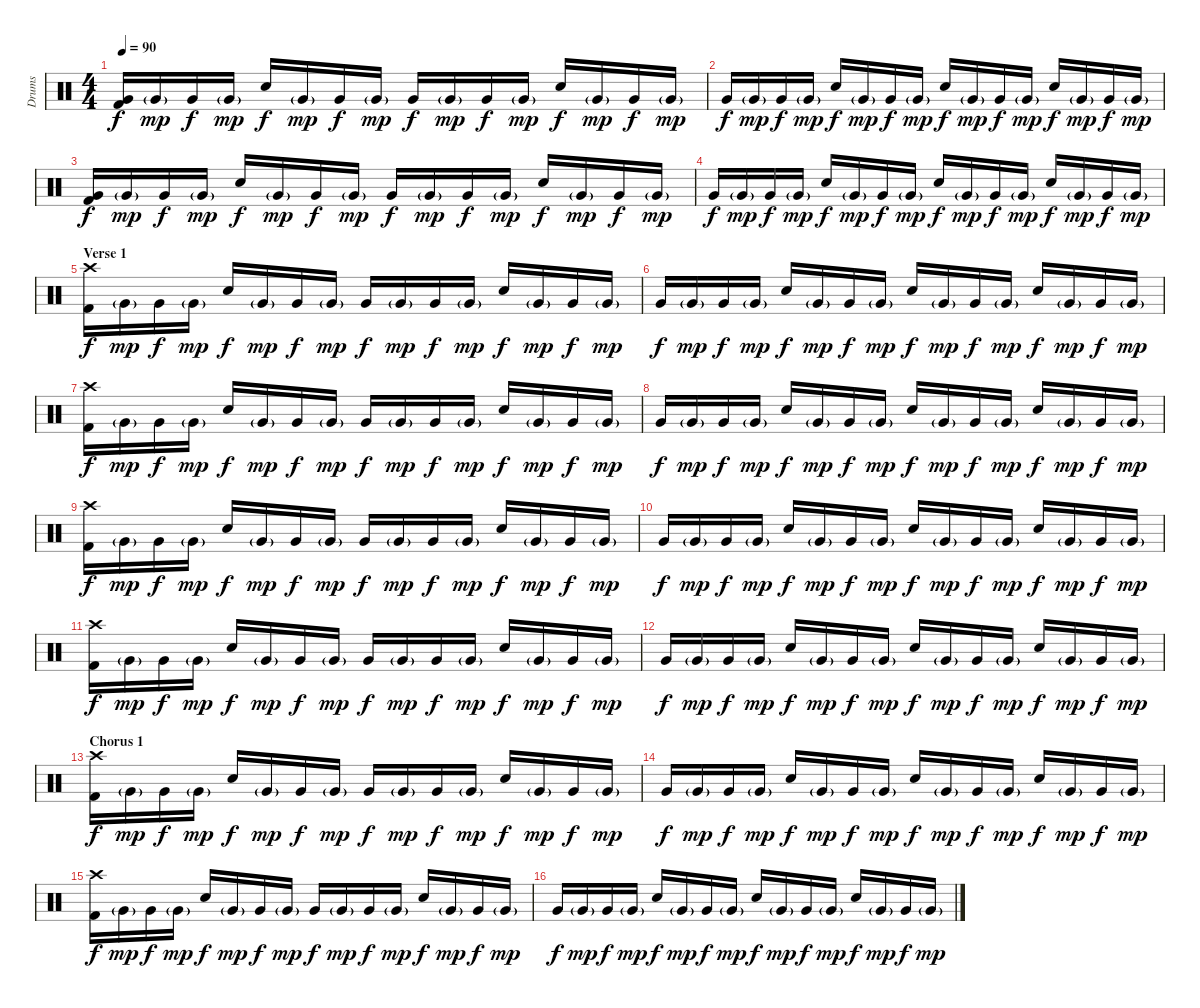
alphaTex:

\track ("Drums" "Drums") {instrument percussion}
\staff {score}
\articulation defaults
\ts (4 4)
\tempo 90
\clef neutral
\ks c
("Very Low Tom (hit)" "Kick (hit) 2").16{dy f} "Very Low Tom (hit)"{g}.16{dy mp} "Very Low Tom (hit)".16{dy f} "Very Low Tom (hit)"{g}.16{dy mp} "Snare (hit) 2".16{dy f} "Very Low Tom (hit)"{g}.16{dy mp} "Very Low Tom (hit)".16{dy f} "Very Low Tom (hit)"{g}.16{dy mp} "Very Low Tom (hit)".16{dy f} "Very Low Tom (hit)"{g}.16{dy mp} "Very Low Tom (hit)".16{dy f} "Very Low Tom (hit)"{g}.16{dy mp} "Snare (hit) 2".16{dy f} "Very Low Tom (hit)"{g}.16{dy mp} "Very Low Tom (hit)".16{dy f} "Very Low Tom (hit)"{g}.16{dy mp} |
"Very Low Tom (hit)".16{dy f} "Very Low Tom (hit)"{g}.16{dy mp} "Very Low Tom (hit)".16{dy f} "Very Low Tom (hit)"{g}.16{dy mp} "Snare (hit) 2".16{dy f} "Very Low Tom (hit)"{g}.16{dy mp} "Very Low Tom (hit)".16{dy f} "Very Low Tom (hit)"{g}.16{dy mp} "Snare (hit) 2".16{dy f} "Very Low Tom (hit)"{g}.16{dy mp} "Very Low Tom (hit)".16{dy f} "Very Low Tom (hit)"{g}.16{dy mp} "Snare (hit) 2".16{dy f} "Very Low Tom (hit)"{g}.16{dy mp} "Very Low Tom (hit)".16{dy f} "Very Low Tom (hit)"{g}.16{dy mp} |
("Very Low Tom (hit)" "Kick (hit) 2").16{dy f} "Very Low Tom (hit)"{g}.16{dy mp} "Very Low Tom (hit)".16{dy f} "Very Low Tom (hit)"{g}.16{dy mp} "Snare (hit) 2".16{dy f} "Very Low Tom (hit)"{g}.16{dy mp} "Very Low Tom (hit)".16{dy f} "Very Low Tom (hit)"{g}.16{dy mp} "Very Low Tom (hit)".16{dy f} "Very Low Tom (hit)"{g}.16{dy mp} "Very Low Tom (hit)".16{dy f} "Very Low Tom (hit)"{g}.16{dy mp} "Snare (hit) 2".16{dy f} "Very Low Tom (hit)"{g}.16{dy mp} "Very Low Tom (hit)".16{dy f} "Very Low Tom (hit)"{g}.16{dy mp} |
"Very Low Tom (hit)".16{dy f} "Very Low Tom (hit)"{g}.16{dy mp} "Very Low Tom (hit)".16{dy f} "Very Low Tom (hit)"{g}.16{dy mp} "Snare (hit) 2".16{dy f} "Very Low Tom (hit)"{g}.16{dy mp} "Very Low Tom (hit)".16{dy f} "Very Low Tom (hit)"{g}.16{dy mp} "Snare (hit) 2".16{dy f} "Very Low Tom (hit)"{g}.16{dy mp} "Very Low Tom (hit)".16{dy f} "Very Low Tom (hit)"{g}.16{dy mp} "Snare (hit) 2".16{dy f} "Very Low Tom (hit)"{g}.16{dy mp} "Very Low Tom (hit)".16{dy f} "Very Low Tom (hit)"{g}.16{dy mp} |
\section ("" "Verse 1")
("Crash high (hit)" "Kick (hit) 2").16{dy f} "Very Low Tom (hit)"{g}.16{dy mp} "Very Low Tom (hit)".16{dy f} "Very Low Tom (hit)"{g}.16{dy mp} "Snare (hit) 2".16{dy f} "Very Low Tom (hit)"{g}.16{dy mp} "Very Low Tom (hit)".16{dy f} "Very Low Tom (hit)"{g}.16{dy mp} "Very Low Tom (hit)".16{dy f} "Very Low Tom (hit)"{g}.16{dy mp} "Very Low Tom (hit)".16{dy f} "Very Low Tom (hit)"{g}.16{dy mp} "Snare (hit) 2".16{dy f} "Very Low Tom (hit)"{g}.16{dy mp} "Very Low Tom (hit)".16{dy f} "Very Low Tom (hit)"{g}.16{dy mp} |
"Very Low Tom (hit)".16{dy f} "Very Low Tom (hit)"{g}.16{dy mp} "Very Low Tom (hit)".16{dy f} "Very Low Tom (hit)"{g}.16{dy mp} "Snare (hit) 2".16{dy f} "Very Low Tom (hit)"{g}.16{dy mp} "Very Low Tom (hit)".16{dy f} "Very Low Tom (hit)"{g}.16{dy mp} "Snare (hit) 2".16{dy f} "Very Low Tom (hit)"{g}.16{dy mp} "Very Low Tom (hit)".16{dy f} "Very Low Tom (hit)"{g}.16{dy mp} "Snare (hit) 2".16{dy f} "Very Low Tom (hit)"{g}.16{dy mp} "Very Low Tom (hit)".16{dy f} "Very Low Tom (hit)"{g}.16{dy mp} |
("Crash high (hit)" "Kick (hit) 2").16{dy f} "Very Low Tom (hit)"{g}.16{dy mp} "Very Low Tom (hit)".16{dy f} "Very Low Tom (hit)"{g}.16{dy mp} "Snare (hit) 2".16{dy f} "Very Low Tom (hit)"{g}.16{dy mp} "Very Low Tom (hit)".16{dy f} "Very Low Tom (hit)"{g}.16{dy mp} "Very Low Tom (hit)".16{dy f} "Very Low Tom (hit)"{g}.16{dy mp} "Very Low Tom (hit)".16{dy f} "Very Low Tom (hit)"{g}.16{dy mp} "Snare (hit) 2".16{dy f} "Very Low Tom (hit)"{g}.16{dy mp} "Very Low Tom (hit)".16{dy f} "Very Low Tom (hit)"{g}.16{dy mp} |
"Very Low Tom (hit)".16{dy f} "Very Low Tom (hit)"{g}.16{dy mp} "Very Low Tom (hit)".16{dy f} "Very Low Tom (hit)"{g}.16{dy mp} "Snare (hit) 2".16{dy f} "Very Low Tom (hit)"{g}.16{dy mp} "Very Low Tom (hit)".16{dy f} "Very Low Tom (hit)"{g}.16{dy mp} "Snare (hit) 2".16{dy f} "Very Low Tom (hit)"{g}.16{dy mp} "Very Low Tom (hit)".16{dy f} "Very Low Tom (hit)"{g}.16{dy mp} "Snare (hit) 2".16{dy f} "Very Low Tom (hit)"{g}.16{dy mp} "Very Low Tom (hit)".16{dy f} "Very Low Tom (hit)"{g}.16{dy mp} |
("Crash high (hit)" "Kick (hit) 2").16{dy f} "Very Low Tom (hit)"{g}.16{dy mp} "Very Low Tom (hit)".16{dy f} "Very Low Tom (hit)"{g}.16{dy mp} "Snare (hit) 2".16{dy f} "Very Low Tom (hit)"{g}.16{dy mp} "Very Low Tom (hit)".16{dy f} "Very Low Tom (hit)"{g}.16{dy mp} "Very Low Tom (hit)".16{dy f} "Very Low Tom (hit)"{g}.16{dy mp} "Very Low Tom (hit)".16{dy f} "Very Low Tom (hit)"{g}.16{dy mp} "Snare (hit) 2".16{dy f} "Very Low Tom (hit)"{g}.16{dy mp} "Very Low Tom (hit)".16{dy f} "Very Low Tom (hit)"{g}.16{dy mp} |
"Very Low Tom (hit)".16{dy f} "Very Low Tom (hit)"{g}.16{dy mp} "Very Low Tom (hit)".16{dy f} "Very Low Tom (hit)"{g}.16{dy mp} "Snare (hit) 2".16{dy f} "Very Low Tom (hit)"{g}.16{dy mp} "Very Low Tom (hit)".16{dy f} "Very Low Tom (hit)"{g}.16{dy mp} "Snare (hit) 2".16{dy f} "Very Low Tom (hit)"{g}.16{dy mp} "Very Low Tom (hit)".16{dy f} "Very Low Tom (hit)"{g}.16{dy mp} "Snare (hit) 2".16{dy f} "Very Low Tom (hit)"{g}.16{dy mp} "Very Low Tom (hit)".16{dy f} "Very Low Tom (hit)"{g}.16{dy mp} |
("Crash high (hit)" "Kick (hit) 2").16{dy f} "Very Low Tom (hit)"{g}.16{dy mp} "Very Low Tom (hit)".16{dy f} "Very Low Tom (hit)"{g}.16{dy mp} "Snare (hit) 2".16{dy f} "Very Low Tom (hit)"{g}.16{dy mp} "Very Low Tom (hit)".16{dy f} "Very Low Tom (hit)"{g}.16{dy mp} "Very Low Tom (hit)".16{dy f} "Very Low Tom (hit)"{g}.16{dy mp} "Very Low Tom (hit)".16{dy f} "Very Low Tom (hit)"{g}.16{dy mp} "Snare (hit) 2".16{dy f} "Very Low Tom (hit)"{g}.16{dy mp} "Very Low Tom (hit)".16{dy f} "Very Low Tom (hit)"{g}.16{dy mp} |
"Very Low Tom (hit)".16{dy f} "Very Low Tom (hit)"{g}.16{dy mp} "Very Low Tom (hit)".16{dy f} "Very Low Tom (hit)"{g}.16{dy mp} "Snare (hit) 2".16{dy f} "Very Low Tom (hit)"{g}.16{dy mp} "Very Low Tom (hit)".16{dy f} "Very Low Tom (hit)"{g}.16{dy mp} "Snare (hit) 2".16{dy f} "Very Low Tom (hit)"{g}.16{dy mp} "Very Low Tom (hit)".16{dy f} "Very Low Tom (hit)"{g}.16{dy mp} "Snare (hit) 2".16{dy f} "Very Low Tom (hit)"{g}.16{dy mp} "Very Low Tom (hit)".16{dy f} "Very Low Tom (hit)"{g}.16{dy mp} |
\section ("" "Chorus 1")
("Crash high (hit)" "Kick (hit) 2").16{dy f} "Very Low Tom (hit)"{g}.16{dy mp} "Very Low Tom (hit)".16{dy f} "Very Low Tom (hit)"{g}.16{dy mp} "Snare (hit) 2".16{dy f} "Very Low Tom (hit)"{g}.16{dy mp} "Very Low Tom (hit)".16{dy f} "Very Low Tom (hit)"{g}.16{dy mp} "Very Low Tom (hit)".16{dy f} "Very Low Tom (hit)"{g}.16{dy mp} "Very Low Tom (hit)".16{dy f} "Very Low Tom (hit)"{g}.16{dy mp} "Snare (hit) 2".16{dy f} "Very Low Tom (hit)"{g}.16{dy mp} "Very Low Tom (hit)".16{dy f} "Very Low Tom (hit)"{g}.16{dy mp} |
"Very Low Tom (hit)".16{dy f} "Very Low Tom (hit)"{g}.16{dy mp} "Very Low Tom (hit)".16{dy f} "Very Low Tom (hit)"{g}.16{dy mp} "Snare (hit) 2".16{dy f} "Very Low Tom (hit)"{g}.16{dy mp} "Very Low Tom (hit)".16{dy f} "Very Low Tom (hit)"{g}.16{dy mp} "Snare (hit) 2".16{dy f} "Very Low Tom (hit)"{g}.16{dy mp} "Very Low Tom (hit)".16{dy f} "Very Low Tom (hit)"{g}.16{dy mp} "Snare (hit) 2".16{dy f} "Very Low Tom (hit)"{g}.16{dy mp} "Very Low Tom (hit)".16{dy f} "Very Low Tom (hit)"{g}.16{dy mp} |
("Crash high (hit)" "Kick (hit) 2").16{dy f} "Very Low Tom (hit)"{g}.16{dy mp} "Very Low Tom (hit)".16{dy f} "Very Low Tom (hit)"{g}.16{dy mp} "Snare (hit) 2".16{dy f} "Very Low Tom (hit)"{g}.16{dy mp} "Very Low Tom (hit)".16{dy f} "Very Low Tom (hit)"{g}.16{dy mp} "Very Low Tom (hit)".16{dy f} "Very Low Tom (hit)"{g}.16{dy mp} "Very Low Tom (hit)".16{dy f} "Very Low Tom (hit)"{g}.16{dy mp} "Snare (hit) 2".16{dy f} "Very Low Tom (hit)"{g}.16{dy mp} "Very Low Tom (hit)".16{dy f} "Very Low Tom (hit)"{g}.16{dy mp} |
"Very Low Tom (hit)".16{dy f} "Very Low Tom (hit)"{g}.16{dy mp} "Very Low Tom (hit)".16{dy f} "Very Low Tom (hit)"{g}.16{dy mp} "Snare (hit) 2".16{dy f} "Very Low Tom (hit)"{g}.16{dy mp} "Very Low Tom (hit)".16{dy f} "Very Low Tom (hit)"{g}.16{dy mp} "Snare (hit) 2".16{dy f} "Very Low Tom (hit)"{g}.16{dy mp} "Very Low Tom (hit)".16{dy f} "Very Low Tom (hit)"{g}.16{dy mp} "Snare (hit) 2".16{dy f} "Very Low Tom (hit)"{g}.16{dy mp} "Very Low Tom (hit)".16{dy f} "Very Low Tom (hit)"{g}.16{dy mp}
